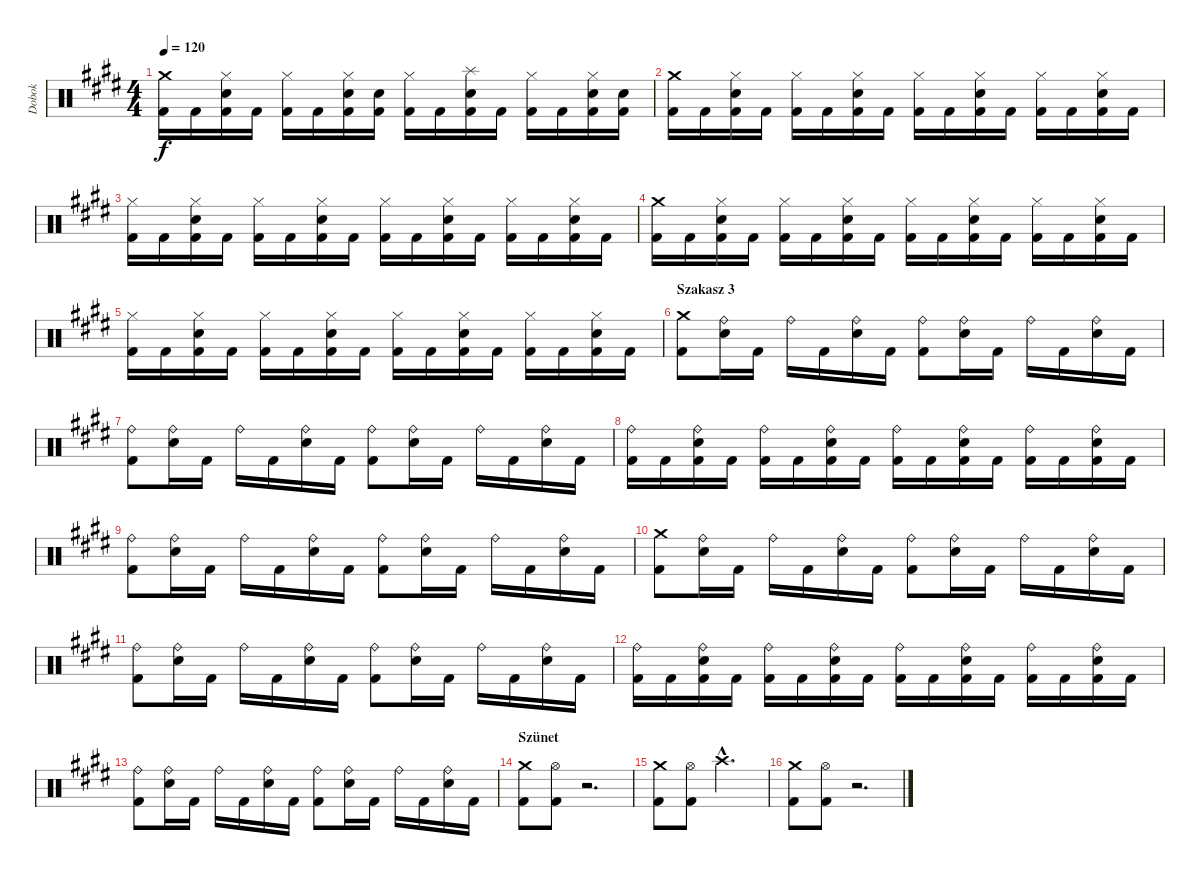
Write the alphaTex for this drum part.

\track ("Dobok" "Dobok") {instrument percussion}
\staff {score}
\articulation defaults
\ts (4 4)
\tempo 120
\clef neutral
\ks c#minor
("Crash medium (hit)" "Kick (hit) 2").16{dy f} "Kick (hit) 2".16 ("Hi-Hat (closed)" "Snare (hit) 2" "Kick (hit) 2").16 "Kick (hit) 2".16 ("Hi-Hat (closed)" "Kick (hit) 2").16 "Kick (hit) 2".16 ("Hi-Hat (closed)" "Snare (hit) 2" "Kick (hit) 2").16 ("Snare (hit) 2" "Kick (hit) 2").16 ("Hi-Hat (closed)" "Kick (hit) 2").16 "Kick (hit) 2".16 ("Splash (hit)" "Snare (hit) 2" "Kick (hit) 2").16 "Kick (hit) 2".16 ("Hi-Hat (closed)" "Kick (hit) 2").16 "Kick (hit) 2".16 ("Hi-Hat (closed)" "Snare (hit) 2" "Kick (hit) 2").16 ("Snare (hit) 2" "Kick (hit) 2").16 |
("Crash medium (hit)" "Kick (hit) 2").16 "Kick (hit) 2".16 ("Hi-Hat (closed)" "Snare (hit) 2" "Kick (hit) 2").16 "Kick (hit) 2".16 ("Hi-Hat (closed)" "Kick (hit) 2").16 "Kick (hit) 2".16 ("Hi-Hat (closed)" "Snare (hit) 2" "Kick (hit) 2").16 "Kick (hit) 2".16 ("Hi-Hat (closed)" "Kick (hit) 2").16 "Kick (hit) 2".16 ("Hi-Hat (closed)" "Snare (hit) 2" "Kick (hit) 2").16 "Kick (hit) 2".16 ("Hi-Hat (closed)" "Kick (hit) 2").16 "Kick (hit) 2".16 ("Hi-Hat (closed)" "Snare (hit) 2" "Kick (hit) 2").16 "Kick (hit) 2".16 |
("Hi-Hat (closed)" "Kick (hit) 2").16 "Kick (hit) 2".16 ("Hi-Hat (closed)" "Snare (hit) 2" "Kick (hit) 2").16 "Kick (hit) 2".16 ("Hi-Hat (closed)" "Kick (hit) 2").16 "Kick (hit) 2".16 ("Hi-Hat (closed)" "Snare (hit) 2" "Kick (hit) 2").16 "Kick (hit) 2".16 ("Hi-Hat (closed)" "Kick (hit) 2").16 "Kick (hit) 2".16 ("Hi-Hat (closed)" "Snare (hit) 2" "Kick (hit) 2").16 "Kick (hit) 2".16 ("Hi-Hat (closed)" "Kick (hit) 2").16 "Kick (hit) 2".16 ("Hi-Hat (closed)" "Snare (hit) 2" "Kick (hit) 2").16 "Kick (hit) 2".16 |
("Crash medium (hit)" "Kick (hit) 2").16 "Kick (hit) 2".16 ("Hi-Hat (closed)" "Snare (hit) 2" "Kick (hit) 2").16 "Kick (hit) 2".16 ("Hi-Hat (closed)" "Kick (hit) 2").16 "Kick (hit) 2".16 ("Hi-Hat (closed)" "Snare (hit) 2" "Kick (hit) 2").16 "Kick (hit) 2".16 ("Hi-Hat (closed)" "Kick (hit) 2").16 "Kick (hit) 2".16 ("Hi-Hat (closed)" "Snare (hit) 2" "Kick (hit) 2").16 "Kick (hit) 2".16 ("Hi-Hat (closed)" "Kick (hit) 2").16 "Kick (hit) 2".16 ("Hi-Hat (closed)" "Snare (hit) 2" "Kick (hit) 2").16 "Kick (hit) 2".16 |
("Hi-Hat (closed)" "Kick (hit) 2").16 "Kick (hit) 2".16 ("Hi-Hat (closed)" "Snare (hit) 2" "Kick (hit) 2").16 "Kick (hit) 2".16 ("Hi-Hat (closed)" "Kick (hit) 2").16 "Kick (hit) 2".16 ("Hi-Hat (closed)" "Snare (hit) 2" "Kick (hit) 2").16 "Kick (hit) 2".16 ("Hi-Hat (closed)" "Kick (hit) 2").16 "Kick (hit) 2".16 ("Hi-Hat (closed)" "Snare (hit) 2" "Kick (hit) 2").16 "Kick (hit) 2".16 ("Hi-Hat (closed)" "Kick (hit) 2").16 "Kick (hit) 2".16 ("Hi-Hat (closed)" "Snare (hit) 2" "Kick (hit) 2").16 "Kick (hit) 2".16 |
\section ("" "Szakasz 3")
("Crash medium (hit)" "Kick (hit) 2").8 ("Ride (bell)" "Snare (hit) 2").16 "Kick (hit) 2".16 "Ride (bell)".16 "Kick (hit) 2".16 ("Ride (bell)" "Snare (hit) 2").16 "Kick (hit) 2".16 ("Ride (bell)" "Kick (hit) 2").8 ("Ride (bell)" "Snare (hit) 2").16 "Kick (hit) 2".16 "Ride (bell)".16 "Kick (hit) 2".16 ("Ride (bell)" "Snare (hit) 2").16 "Kick (hit) 2".16 |
("Ride (bell)" "Kick (hit) 2").8 ("Ride (bell)" "Snare (hit) 2").16 "Kick (hit) 2".16 "Ride (bell)".16 "Kick (hit) 2".16 ("Ride (bell)" "Snare (hit) 2").16 "Kick (hit) 2".16 ("Ride (bell)" "Kick (hit) 2").8 ("Ride (bell)" "Snare (hit) 2").16 "Kick (hit) 2".16 "Ride (bell)".16 "Kick (hit) 2".16 ("Ride (bell)" "Snare (hit) 2").16 "Kick (hit) 2".16 |
("Ride (bell)" "Kick (hit) 2").16 "Kick (hit) 2".16 ("Ride (bell)" "Snare (hit) 2" "Kick (hit) 2").16 "Kick (hit) 2".16 ("Ride (bell)" "Kick (hit) 2").16 "Kick (hit) 2".16 ("Ride (bell)" "Snare (hit) 2" "Kick (hit) 2").16 "Kick (hit) 2".16 ("Ride (bell)" "Kick (hit) 2").16 "Kick (hit) 2".16 ("Ride (bell)" "Snare (hit) 2" "Kick (hit) 2").16 "Kick (hit) 2".16 ("Ride (bell)" "Kick (hit) 2").16 "Kick (hit) 2".16 ("Ride (bell)" "Snare (hit) 2" "Kick (hit) 2").16 "Kick (hit) 2".16 |
("Ride (bell)" "Kick (hit) 2").8 ("Ride (bell)" "Snare (hit) 2").16 "Kick (hit) 2".16 "Ride (bell)".16 "Kick (hit) 2".16 ("Ride (bell)" "Snare (hit) 2").16 "Kick (hit) 2".16 ("Ride (bell)" "Kick (hit) 2").8 ("Ride (bell)" "Snare (hit) 2").16 "Kick (hit) 2".16 "Ride (bell)".16 "Kick (hit) 2".16 ("Ride (bell)" "Snare (hit) 2").16 "Kick (hit) 2".16 |
("Crash medium (hit)" "Kick (hit) 2").8 ("Ride (bell)" "Snare (hit) 2").16 "Kick (hit) 2".16 "Ride (bell)".16 "Kick (hit) 2".16 ("Ride (bell)" "Snare (hit) 2").16 "Kick (hit) 2".16 ("Ride (bell)" "Kick (hit) 2").8 ("Ride (bell)" "Snare (hit) 2").16 "Kick (hit) 2".16 "Ride (bell)".16 "Kick (hit) 2".16 ("Ride (bell)" "Snare (hit) 2").16 "Kick (hit) 2".16 |
("Ride (bell)" "Kick (hit) 2").8 ("Ride (bell)" "Snare (hit) 2").16 "Kick (hit) 2".16 "Ride (bell)".16 "Kick (hit) 2".16 ("Ride (bell)" "Snare (hit) 2").16 "Kick (hit) 2".16 ("Ride (bell)" "Kick (hit) 2").8 ("Ride (bell)" "Snare (hit) 2").16 "Kick (hit) 2".16 "Ride (bell)".16 "Kick (hit) 2".16 ("Ride (bell)" "Snare (hit) 2").16 "Kick (hit) 2".16 |
("Ride (bell)" "Kick (hit) 2").16 "Kick (hit) 2".16 ("Ride (bell)" "Snare (hit) 2" "Kick (hit) 2").16 "Kick (hit) 2".16 ("Ride (bell)" "Kick (hit) 2").16 "Kick (hit) 2".16 ("Ride (bell)" "Snare (hit) 2" "Kick (hit) 2").16 "Kick (hit) 2".16 ("Ride (bell)" "Kick (hit) 2").16 "Kick (hit) 2".16 ("Ride (bell)" "Snare (hit) 2" "Kick (hit) 2").16 "Kick (hit) 2".16 ("Ride (bell)" "Kick (hit) 2").16 "Kick (hit) 2".16 ("Ride (bell)" "Snare (hit) 2" "Kick (hit) 2").16 "Kick (hit) 2".16 |
("Ride (bell)" "Kick (hit) 2").8 ("Ride (bell)" "Snare (hit) 2").16 "Kick (hit) 2".16 "Ride (bell)".16 "Kick (hit) 2".16 ("Ride (bell)" "Snare (hit) 2").16 "Kick (hit) 2".16 ("Ride (bell)" "Kick (hit) 2").8 ("Ride (bell)" "Snare (hit) 2").16 "Kick (hit) 2".16 "Ride (bell)".16 "Kick (hit) 2".16 ("Ride (bell)" "Snare (hit) 2").16 "Kick (hit) 2".16 |
\section ("" "Szünet")
("Crash medium (hit)" "Kick (hit) 2").8 ("Hi-Hat (open)" "Kick (hit) 2").8 r.2{d} |
("Crash medium (hit)" "Kick (hit) 2").8 ("Hi-Hat (open)" "Kick (hit) 2").8 "Crash high (hit)"{hac}.2{d} |
("Crash medium (hit)" "Kick (hit) 2").8 ("Hi-Hat (open)" "Kick (hit) 2").8 r.2{d}
